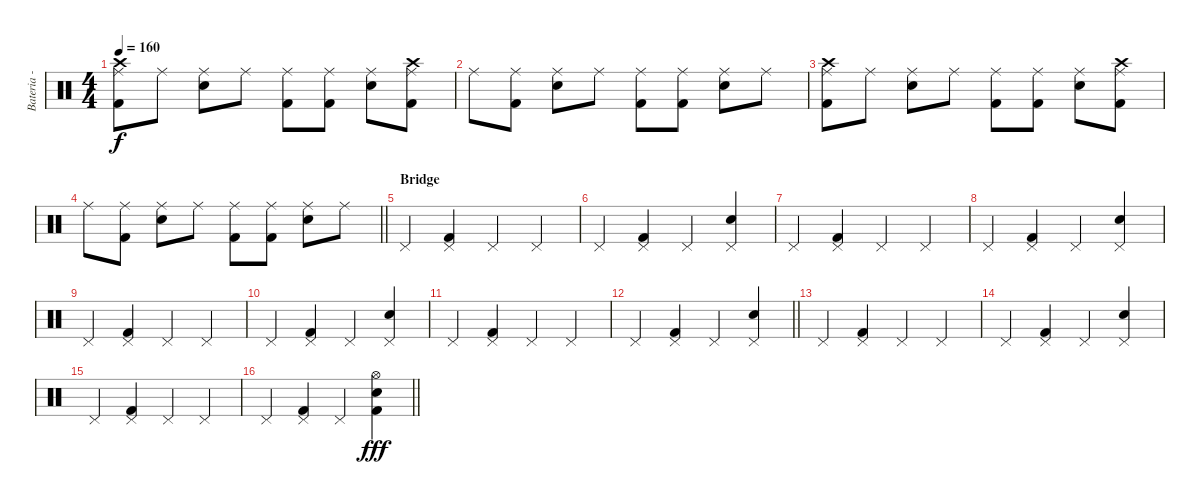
\track ("Bateria - Larzon" "Bateria - ") {instrument percussion}
\staff {score}
\articulation defaults
\ts (4 4)
\tempo 160
\clef neutral
\ks c
("Kick (hit) 2" "Ride (middle)" "Crash high (hit)").8{dy f} "Ride (middle)".8 ("Electric Snare (hit)" "Ride (middle)").8 "Ride (middle)".8 ("Kick (hit) 2" "Ride (middle)").8 ("Kick (hit) 2" "Ride (middle)").8 ("Electric Snare (hit)" "Ride (middle)").8 ("Kick (hit) 2" "Ride (middle)" "Crash high (hit)").8 |
"Ride (middle)".8 ("Kick (hit) 2" "Ride (middle)").8 ("Electric Snare (hit)" "Ride (middle)").8 "Ride (middle)".8 ("Kick (hit) 2" "Ride (middle)").8 ("Kick (hit) 2" "Ride (middle)").8 ("Electric Snare (hit)" "Ride (middle)").8 "Ride (middle)".8 |
("Kick (hit) 2" "Ride (middle)" "Crash high (hit)").8 "Ride (middle)".8 ("Electric Snare (hit)" "Ride (middle)").8 "Ride (middle)".8 ("Kick (hit) 2" "Ride (middle)").8 ("Kick (hit) 2" "Ride (middle)").8 ("Electric Snare (hit)" "Ride (middle)").8 ("Kick (hit) 2" "Ride (middle)" "Crash high (hit)").8 |
\barLineRight lightlight "Ride (middle)".8
("Kick (hit) 2" "Ride (middle)").8 ("Electric Snare (hit)" "Ride (middle)").8 "Ride (middle)".8 ("Kick (hit) 2" "Ride (middle)").8 ("Kick (hit) 2" "Ride (middle)").8 ("Electric Snare (hit)" "Ride (middle)").8 "Ride (middle)".8 |
\section ("" "Bridge")
"Pedal Hi-Hat (hit)".4 ("Pedal Hi-Hat (hit)" "Kick (hit) 2").4 "Pedal Hi-Hat (hit)".4 "Pedal Hi-Hat (hit)".4 |
"Pedal Hi-Hat (hit)".4 ("Pedal Hi-Hat (hit)" "Kick (hit) 2").4 "Pedal Hi-Hat (hit)".4 ("Pedal Hi-Hat (hit)" "Electric Snare (hit)").4 |
"Pedal Hi-Hat (hit)".4 ("Pedal Hi-Hat (hit)" "Kick (hit) 2").4 "Pedal Hi-Hat (hit)".4 "Pedal Hi-Hat (hit)".4 |
"Pedal Hi-Hat (hit)".4 ("Pedal Hi-Hat (hit)" "Kick (hit) 2").4 "Pedal Hi-Hat (hit)".4 ("Pedal Hi-Hat (hit)" "Electric Snare (hit)").4 |
"Pedal Hi-Hat (hit)".4 ("Pedal Hi-Hat (hit)" "Kick (hit) 2").4 "Pedal Hi-Hat (hit)".4 "Pedal Hi-Hat (hit)".4 |
"Pedal Hi-Hat (hit)".4 ("Pedal Hi-Hat (hit)" "Kick (hit) 2").4 "Pedal Hi-Hat (hit)".4 ("Pedal Hi-Hat (hit)" "Electric Snare (hit)").4 |
"Pedal Hi-Hat (hit)".4 ("Pedal Hi-Hat (hit)" "Kick (hit) 2").4 "Pedal Hi-Hat (hit)".4 "Pedal Hi-Hat (hit)".4 |
\barLineRight lightlight "Pedal Hi-Hat (hit)".4
("Pedal Hi-Hat (hit)" "Kick (hit) 2").4 "Pedal Hi-Hat (hit)".4 ("Pedal Hi-Hat (hit)" "Electric Snare (hit)").4 |
"Pedal Hi-Hat (hit)".4 ("Pedal Hi-Hat (hit)" "Kick (hit) 2").4 "Pedal Hi-Hat (hit)".4 "Pedal Hi-Hat (hit)".4 |
"Pedal Hi-Hat (hit)".4 ("Pedal Hi-Hat (hit)" "Kick (hit) 2").4 "Pedal Hi-Hat (hit)".4 ("Pedal Hi-Hat (hit)" "Electric Snare (hit)").4 |
"Pedal Hi-Hat (hit)".4 ("Pedal Hi-Hat (hit)" "Kick (hit) 2").4 "Pedal Hi-Hat (hit)".4 "Pedal Hi-Hat (hit)".4 |
\barLineRight lightlight "Pedal Hi-Hat (hit)".4
("Pedal Hi-Hat (hit)" "Kick (hit) 2").4 "Pedal Hi-Hat (hit)".4 ("Hi-Hat (open)" "Electric Snare (hit)" "Kick (hit) 2").4{dy fff}
